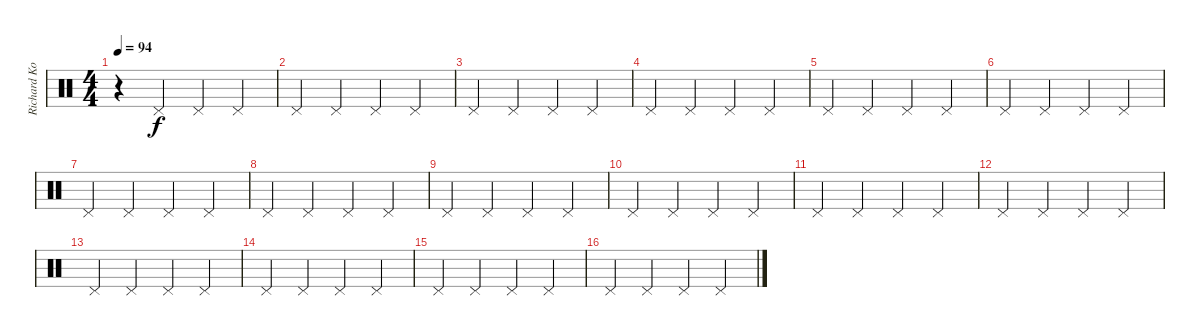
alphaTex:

\track ("Richard Kolinka" "Richard Ko") {instrument percussion}
\staff {score}
\articulation defaults
\ts (4 4)
\tempo 94
\clef neutral
\ks c
r.4{dy f} "Pedal Hi-Hat (hit)".4 "Pedal Hi-Hat (hit)".4 "Pedal Hi-Hat (hit)".4 |
"Pedal Hi-Hat (hit)".4 "Pedal Hi-Hat (hit)".4 "Pedal Hi-Hat (hit)".4 "Pedal Hi-Hat (hit)".4 |
"Pedal Hi-Hat (hit)".4 "Pedal Hi-Hat (hit)".4 "Pedal Hi-Hat (hit)".4 "Pedal Hi-Hat (hit)".4 |
"Pedal Hi-Hat (hit)".4 "Pedal Hi-Hat (hit)".4 "Pedal Hi-Hat (hit)".4 "Pedal Hi-Hat (hit)".4 |
"Pedal Hi-Hat (hit)".4 "Pedal Hi-Hat (hit)".4 "Pedal Hi-Hat (hit)".4 "Pedal Hi-Hat (hit)".4 |
"Pedal Hi-Hat (hit)".4 "Pedal Hi-Hat (hit)".4 "Pedal Hi-Hat (hit)".4 "Pedal Hi-Hat (hit)".4 |
"Pedal Hi-Hat (hit)".4 "Pedal Hi-Hat (hit)".4 "Pedal Hi-Hat (hit)".4 "Pedal Hi-Hat (hit)".4 |
"Pedal Hi-Hat (hit)".4 "Pedal Hi-Hat (hit)".4 "Pedal Hi-Hat (hit)".4 "Pedal Hi-Hat (hit)".4 |
"Pedal Hi-Hat (hit)".4 "Pedal Hi-Hat (hit)".4 "Pedal Hi-Hat (hit)".4 "Pedal Hi-Hat (hit)".4 |
"Pedal Hi-Hat (hit)".4 "Pedal Hi-Hat (hit)".4 "Pedal Hi-Hat (hit)".4 "Pedal Hi-Hat (hit)".4 |
"Pedal Hi-Hat (hit)".4 "Pedal Hi-Hat (hit)".4 "Pedal Hi-Hat (hit)".4 "Pedal Hi-Hat (hit)".4 |
"Pedal Hi-Hat (hit)".4 "Pedal Hi-Hat (hit)".4 "Pedal Hi-Hat (hit)".4 "Pedal Hi-Hat (hit)".4 |
"Pedal Hi-Hat (hit)".4 "Pedal Hi-Hat (hit)".4 "Pedal Hi-Hat (hit)".4 "Pedal Hi-Hat (hit)".4 |
"Pedal Hi-Hat (hit)".4 "Pedal Hi-Hat (hit)".4 "Pedal Hi-Hat (hit)".4 "Pedal Hi-Hat (hit)".4 |
"Pedal Hi-Hat (hit)".4 "Pedal Hi-Hat (hit)".4 "Pedal Hi-Hat (hit)".4 "Pedal Hi-Hat (hit)".4 |
"Pedal Hi-Hat (hit)".4 "Pedal Hi-Hat (hit)".4 "Pedal Hi-Hat (hit)".4 "Pedal Hi-Hat (hit)".4
